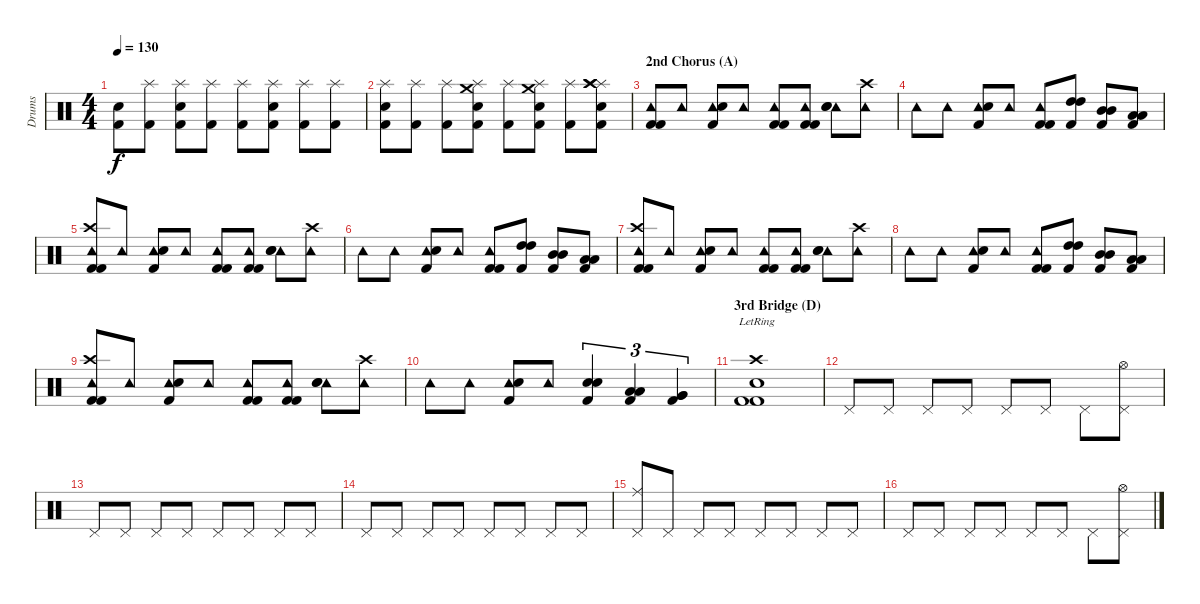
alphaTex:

\track ("Drums" "Drums") {instrument percussion}
\staff {score}
\articulation defaults
\ts (4 4)
\tempo 130
\clef neutral
\ks c
("Kick (hit) 2" "Snare (hit)"{t}).8{dy f} ("Splash (hit)" "Kick (hit) 2").8 ("Splash (hit)" "Kick (hit) 2" "Snare (hit) 2").8 ("Splash (hit)" "Kick (hit) 2").8 ("Splash (hit)" "Kick (hit) 2").8 ("Splash (hit)" "Kick (hit) 2" "Snare (hit) 2").8 ("Splash (hit)" "Kick (hit) 2").8 ("Splash (hit)" "Kick (hit) 2").8 |
("Splash (hit)" "Kick (hit) 2" "Snare (hit) 2").8 ("Splash (hit)" "Kick (hit) 2").8 ("Splash (hit)" "Kick (hit) 2").8 ("Splash (hit)" "Kick (hit) 2" "Snare (hit) 2" "Crash medium (hit)").8 ("Splash (hit)" "Kick (hit) 2").8 ("Splash (hit)" "Kick (hit) 2" "Snare (hit) 2" "Crash medium (hit)").8 ("Splash (hit)" "Kick (hit) 2").8 ("Splash (hit)" "Kick (hit) 2" "Snare (hit) 2" "Crash high (hit)" "Crash high (hit)").8 |
\section ("" "2nd Chorus (A)")
("Tambourine (hit)" "Kick (hit) 2" "Kick (hit) 2").8 "Tambourine (hit)".8 ("Tambourine (hit)" "Kick (hit) 2" "Snare (hit) 2").8 "Tambourine (hit)".8 ("Tambourine (hit)" "Kick (hit) 2" "Kick (hit) 2").8 ("Tambourine (hit)" "Kick (hit) 2" "Kick (hit) 2").8 ("Tambourine (hit)" "Snare (hit) 2" "Snare (hit) 2").8 ("Tambourine (hit)" "Crash high (hit)").8 |
"Tambourine (hit)".8 "Tambourine (hit)".8 ("Tambourine (hit)" "Kick (hit) 2" "Snare (hit) 2").8 "Tambourine (hit)".8 ("Tambourine (hit)" "Kick (hit) 2" "Kick (hit) 2").8 ("Kick (hit) 2" "High Tom (hit)" "High Tom (hit)").8 ("Kick (hit) 2" "Mid Tom (hit)" "Mid Tom (hit)").8 ("Kick (hit) 2" "Low Tom (hit)" "Low Tom (hit)").8 |
("Tambourine (hit)" "Kick (hit) 2" "Kick (hit) 2" "Crash high (hit)").8 "Tambourine (hit)".8 ("Tambourine (hit)" "Kick (hit) 2" "Snare (hit) 2").8 "Tambourine (hit)".8 ("Tambourine (hit)" "Kick (hit) 2" "Kick (hit) 2").8 ("Tambourine (hit)" "Kick (hit) 2" "Kick (hit) 2").8 ("Tambourine (hit)" "Snare (hit) 2" "Snare (hit) 2").8 ("Tambourine (hit)" "Crash high (hit)").8 |
"Tambourine (hit)".8 "Tambourine (hit)".8 ("Tambourine (hit)" "Kick (hit) 2" "Snare (hit) 2").8 "Tambourine (hit)".8 ("Tambourine (hit)" "Kick (hit) 2" "Kick (hit) 2").8 ("Kick (hit) 2" "High Tom (hit)" "High Tom (hit)").8 ("Kick (hit) 2" "Mid Tom (hit)" "Mid Tom (hit)").8 ("Kick (hit) 2" "Low Tom (hit)" "Low Tom (hit)").8 |
("Tambourine (hit)" "Kick (hit) 2" "Kick (hit) 2" "Crash high (hit)").8 "Tambourine (hit)".8 ("Tambourine (hit)" "Kick (hit) 2" "Snare (hit) 2").8 "Tambourine (hit)".8 ("Tambourine (hit)" "Kick (hit) 2" "Kick (hit) 2").8 ("Tambourine (hit)" "Kick (hit) 2" "Kick (hit) 2").8 ("Tambourine (hit)" "Snare (hit) 2" "Snare (hit) 2").8 ("Tambourine (hit)" "Crash high (hit)").8 |
"Tambourine (hit)".8 "Tambourine (hit)".8 ("Tambourine (hit)" "Kick (hit) 2" "Snare (hit) 2").8 "Tambourine (hit)".8 ("Tambourine (hit)" "Kick (hit) 2" "Kick (hit) 2").8 ("Kick (hit) 2" "High Tom (hit)" "High Tom (hit)").8 ("Kick (hit) 2" "Mid Tom (hit)" "Mid Tom (hit)").8 ("Kick (hit) 2" "Low Tom (hit)" "Low Tom (hit)").8 |
("Tambourine (hit)" "Kick (hit) 2" "Kick (hit) 2" "Crash high (hit)").8 "Tambourine (hit)".8 ("Tambourine (hit)" "Kick (hit) 2" "Snare (hit) 2").8 "Tambourine (hit)".8 ("Tambourine (hit)" "Kick (hit) 2" "Kick (hit) 2").8 ("Tambourine (hit)" "Kick (hit) 2" "Kick (hit) 2").8 ("Tambourine (hit)" "Snare (hit) 2" "Snare (hit) 2").8 ("Tambourine (hit)" "Crash high (hit)").8 |
"Tambourine (hit)".8 "Tambourine (hit)".8 ("Tambourine (hit)" "Kick (hit) 2" "Snare (hit) 2").8 "Tambourine (hit)".8 ("Kick (hit) 2" "Snare (hit) 2" "Snare (hit) 2").4{tu (3 2)} ("Kick (hit) 2" "Low Tom (hit)" "Low Tom (hit)").4{tu (3 2)} ("Kick (hit) 2" "Very Low Tom (hit)" "Very Low Tom (hit)").4{tu (3 2)} |
\section ("" "3rd Bridge (D)")
("Kick (hit) 2" "Kick (hit) 2" "Snare (hit) 2" "Crash high (hit)"{lr}).1 |
"Pedal Hi-Hat (hit)".8 "Pedal Hi-Hat (hit)".8 "Pedal Hi-Hat (hit)".8 "Pedal Hi-Hat (hit)".8 "Pedal Hi-Hat (hit)".8 "Pedal Hi-Hat (hit)".8 "Pedal Hi-Hat (hit)".8 ("Pedal Hi-Hat (hit)" "Hi-Hat (open)").8 |
"Pedal Hi-Hat (hit)".8 "Pedal Hi-Hat (hit)".8 "Pedal Hi-Hat (hit)".8 "Pedal Hi-Hat (hit)".8 "Pedal Hi-Hat (hit)".8 "Pedal Hi-Hat (hit)".8 "Pedal Hi-Hat (hit)".8 "Pedal Hi-Hat (hit)".8 |
"Pedal Hi-Hat (hit)".8 "Pedal Hi-Hat (hit)".8 "Pedal Hi-Hat (hit)".8 "Pedal Hi-Hat (hit)".8 "Pedal Hi-Hat (hit)".8 "Pedal Hi-Hat (hit)".8 "Pedal Hi-Hat (hit)".8 "Pedal Hi-Hat (hit)".8 |
("Pedal Hi-Hat (hit)" "Ride (middle)").8 "Pedal Hi-Hat (hit)".8 "Pedal Hi-Hat (hit)".8 "Pedal Hi-Hat (hit)".8 "Pedal Hi-Hat (hit)".8 "Pedal Hi-Hat (hit)".8 "Pedal Hi-Hat (hit)".8 "Pedal Hi-Hat (hit)".8 |
"Pedal Hi-Hat (hit)".8 "Pedal Hi-Hat (hit)".8 "Pedal Hi-Hat (hit)".8 "Pedal Hi-Hat (hit)".8 "Pedal Hi-Hat (hit)".8 "Pedal Hi-Hat (hit)".8 "Pedal Hi-Hat (hit)".8 ("Pedal Hi-Hat (hit)" "Hi-Hat (open)").8
